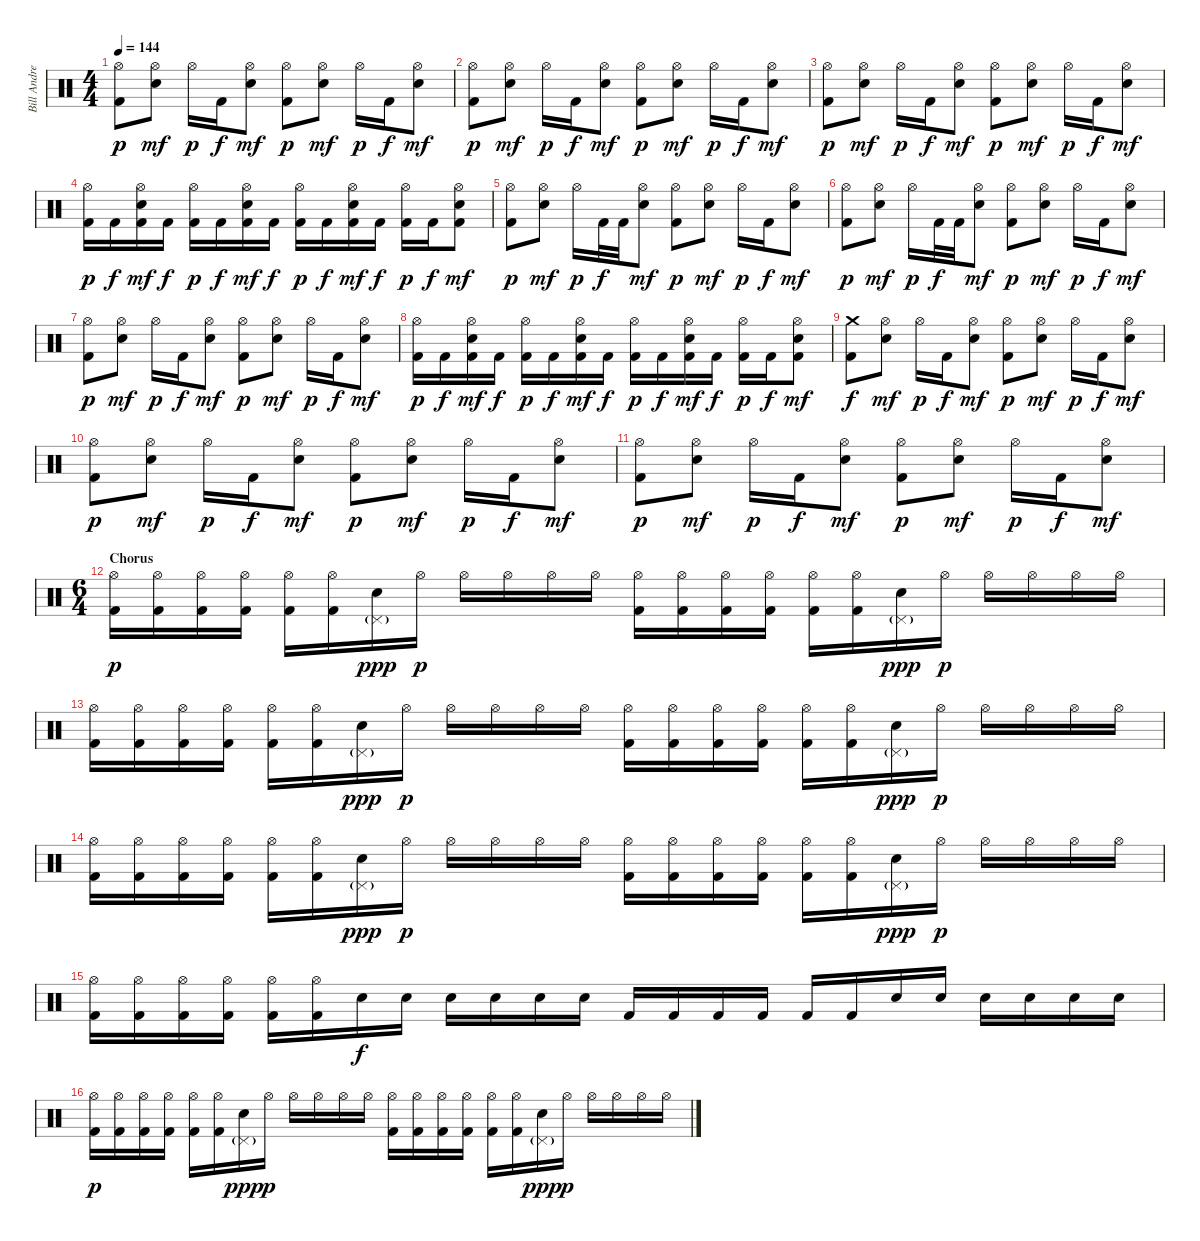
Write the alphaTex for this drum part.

\track ("Bill Andrews" "Bill Andre") {instrument percussion}
\staff {score}
\articulation defaults
\ts (4 4)
\tempo 144
\clef neutral
\ks c
("Kick (hit) 2" "Hi-Hat (open)").8{dy p} ("Hi-Hat (open)" "Snare (hit) 2").8{dy mf} "Hi-Hat (open)".16{dy p} "Kick (hit) 2".16{dy f} ("Hi-Hat (open)" "Snare (hit) 2").8{dy mf} ("Kick (hit) 2" "Hi-Hat (open)").8{dy p} ("Hi-Hat (open)" "Snare (hit) 2").8{dy mf} "Hi-Hat (open)".16{dy p} "Kick (hit) 2".16{dy f} ("Hi-Hat (open)" "Snare (hit) 2").8{dy mf} |
("Kick (hit) 2" "Hi-Hat (open)").8{dy p} ("Hi-Hat (open)" "Snare (hit) 2").8{dy mf} "Hi-Hat (open)".16{dy p} "Kick (hit) 2".16{dy f} ("Hi-Hat (open)" "Snare (hit) 2").8{dy mf} ("Kick (hit) 2" "Hi-Hat (open)").8{dy p} ("Hi-Hat (open)" "Snare (hit) 2").8{dy mf} "Hi-Hat (open)".16{dy p} "Kick (hit) 2".16{dy f} ("Hi-Hat (open)" "Snare (hit) 2").8{dy mf} |
("Kick (hit) 2" "Hi-Hat (open)").8{dy p} ("Hi-Hat (open)" "Snare (hit) 2").8{dy mf} "Hi-Hat (open)".16{dy p} "Kick (hit) 2".16{dy f} ("Hi-Hat (open)" "Snare (hit) 2").8{dy mf} ("Kick (hit) 2" "Hi-Hat (open)").8{dy p} ("Hi-Hat (open)" "Snare (hit) 2").8{dy mf} "Hi-Hat (open)".16{dy p} "Kick (hit) 2".16{dy f} ("Hi-Hat (open)" "Snare (hit) 2").8{dy mf} |
("Kick (hit) 2" "Hi-Hat (open)").16{dy p} "Kick (hit) 2".16{dy f} ("Kick (hit) 2" "Hi-Hat (open)" "Snare (hit) 2").16{dy mf} "Kick (hit) 2".16{dy f} ("Kick (hit) 2" "Hi-Hat (open)").16{dy p} "Kick (hit) 2".16{dy f} ("Kick (hit) 2" "Hi-Hat (open)" "Snare (hit) 2").16{dy mf} "Kick (hit) 2".16{dy f} ("Kick (hit) 2" "Hi-Hat (open)").16{dy p} "Kick (hit) 2".16{dy f} ("Kick (hit) 2" "Hi-Hat (open)" "Snare (hit) 2").16{dy mf} "Kick (hit) 2".16{dy f} ("Kick (hit) 2" "Hi-Hat (open)").16{dy p} "Kick (hit) 2".16{dy f} ("Kick (hit) 2" "Hi-Hat (open)" "Snare (hit) 2").8{dy mf} |
("Kick (hit) 2" "Hi-Hat (open)").8{dy p} ("Hi-Hat (open)" "Snare (hit) 2").8{dy mf} "Hi-Hat (open)".16{dy p} "Kick (hit) 2".32{dy f} "Kick (hit) 2".32 ("Hi-Hat (open)" "Snare (hit) 2").8{dy mf} ("Kick (hit) 2" "Hi-Hat (open)").8{dy p} ("Hi-Hat (open)" "Snare (hit) 2").8{dy mf} "Hi-Hat (open)".16{dy p} "Kick (hit) 2".16{dy f} ("Hi-Hat (open)" "Snare (hit) 2").8{dy mf} |
("Kick (hit) 2" "Hi-Hat (open)").8{dy p} ("Hi-Hat (open)" "Snare (hit) 2").8{dy mf} "Hi-Hat (open)".16{dy p} "Kick (hit) 2".32{dy f} "Kick (hit) 2".32 ("Hi-Hat (open)" "Snare (hit) 2").8{dy mf} ("Kick (hit) 2" "Hi-Hat (open)").8{dy p} ("Hi-Hat (open)" "Snare (hit) 2").8{dy mf} "Hi-Hat (open)".16{dy p} "Kick (hit) 2".16{dy f} ("Hi-Hat (open)" "Snare (hit) 2").8{dy mf} |
("Kick (hit) 2" "Hi-Hat (open)").8{dy p} ("Hi-Hat (open)" "Snare (hit) 2").8{dy mf} "Hi-Hat (open)".16{dy p} "Kick (hit) 2".16{dy f} ("Hi-Hat (open)" "Snare (hit) 2").8{dy mf} ("Kick (hit) 2" "Hi-Hat (open)").8{dy p} ("Hi-Hat (open)" "Snare (hit) 2").8{dy mf} "Hi-Hat (open)".16{dy p} "Kick (hit) 2".16{dy f} ("Hi-Hat (open)" "Snare (hit) 2").8{dy mf} |
("Kick (hit) 2" "Hi-Hat (open)").16{dy p} "Kick (hit) 2".16{dy f} ("Kick (hit) 2" "Hi-Hat (open)" "Snare (hit) 2").16{dy mf} "Kick (hit) 2".16{dy f} ("Kick (hit) 2" "Hi-Hat (open)").16{dy p} "Kick (hit) 2".16{dy f} ("Kick (hit) 2" "Hi-Hat (open)" "Snare (hit) 2").16{dy mf} "Kick (hit) 2".16{dy f} ("Kick (hit) 2" "Hi-Hat (open)").16{dy p} "Kick (hit) 2".16{dy f} ("Kick (hit) 2" "Hi-Hat (open)" "Snare (hit) 2").16{dy mf} "Kick (hit) 2".16{dy f} ("Kick (hit) 2" "Hi-Hat (open)").16{dy p} "Kick (hit) 2".16{dy f} ("Kick (hit) 2" "Hi-Hat (open)" "Snare (hit) 2").8{dy mf} |
("Kick (hit) 2" "Crash medium (hit)").8{dy f} ("Hi-Hat (open)" "Snare (hit) 2").8{dy mf} "Hi-Hat (open)".16{dy p} "Kick (hit) 2".16{dy f} ("Hi-Hat (open)" "Snare (hit) 2").8{dy mf} ("Kick (hit) 2" "Hi-Hat (open)").8{dy p} ("Hi-Hat (open)" "Snare (hit) 2").8{dy mf} "Hi-Hat (open)".16{dy p} "Kick (hit) 2".16{dy f} ("Hi-Hat (open)" "Snare (hit) 2").8{dy mf} |
("Kick (hit) 2" "Hi-Hat (open)").8{dy p} ("Hi-Hat (open)" "Snare (hit) 2").8{dy mf} "Hi-Hat (open)".16{dy p} "Kick (hit) 2".16{dy f} ("Hi-Hat (open)" "Snare (hit) 2").8{dy mf} ("Kick (hit) 2" "Hi-Hat (open)").8{dy p} ("Hi-Hat (open)" "Snare (hit) 2").8{dy mf} "Hi-Hat (open)".16{dy p} "Kick (hit) 2".16{dy f} ("Hi-Hat (open)" "Snare (hit) 2").8{dy mf} |
("Kick (hit) 2" "Hi-Hat (open)").8{dy p} ("Hi-Hat (open)" "Snare (hit) 2").8{dy mf} "Hi-Hat (open)".16{dy p} "Kick (hit) 2".16{dy f} ("Hi-Hat (open)" "Snare (hit) 2").8{dy mf} ("Kick (hit) 2" "Hi-Hat (open)").8{dy p} ("Hi-Hat (open)" "Snare (hit) 2").8{dy mf} "Hi-Hat (open)".16{dy p} "Kick (hit) 2".16{dy f} ("Hi-Hat (open)" "Snare (hit) 2").8{dy mf} |
\ts (6 4)
\section ("" "Chorus")
("Kick (hit) 2" "Hi-Hat (open)").16{dy p} ("Kick (hit) 2" "Hi-Hat (open)").16 ("Kick (hit) 2" "Hi-Hat (open)").16 ("Kick (hit) 2" "Hi-Hat (open)").16 ("Kick (hit) 2" "Hi-Hat (open)").16 ("Kick (hit) 2" "Hi-Hat (open)").16 ("Pedal Hi-Hat (hit)"{g} "Snare (hit) 2").16{dy ppp} "Hi-Hat (open)".16{dy p} "Hi-Hat (open)".16 "Hi-Hat (open)".16 "Hi-Hat (open)".16 "Hi-Hat (open)".16 ("Kick (hit) 2" "Hi-Hat (open)").16 ("Kick (hit) 2" "Hi-Hat (open)").16 ("Kick (hit) 2" "Hi-Hat (open)").16 ("Kick (hit) 2" "Hi-Hat (open)").16 ("Kick (hit) 2" "Hi-Hat (open)").16 ("Kick (hit) 2" "Hi-Hat (open)").16 ("Pedal Hi-Hat (hit)"{g} "Snare (hit) 2").16{dy ppp} "Hi-Hat (open)".16{dy p} "Hi-Hat (open)".16 "Hi-Hat (open)".16 "Hi-Hat (open)".16 "Hi-Hat (open)".16 |
("Kick (hit) 2" "Hi-Hat (open)").16 ("Kick (hit) 2" "Hi-Hat (open)").16 ("Kick (hit) 2" "Hi-Hat (open)").16 ("Kick (hit) 2" "Hi-Hat (open)").16 ("Kick (hit) 2" "Hi-Hat (open)").16 ("Kick (hit) 2" "Hi-Hat (open)").16 ("Pedal Hi-Hat (hit)"{g} "Snare (hit) 2").16{dy ppp} "Hi-Hat (open)".16{dy p} "Hi-Hat (open)".16 "Hi-Hat (open)".16 "Hi-Hat (open)".16 "Hi-Hat (open)".16 ("Kick (hit) 2" "Hi-Hat (open)").16 ("Kick (hit) 2" "Hi-Hat (open)").16 ("Kick (hit) 2" "Hi-Hat (open)").16 ("Kick (hit) 2" "Hi-Hat (open)").16 ("Kick (hit) 2" "Hi-Hat (open)").16 ("Kick (hit) 2" "Hi-Hat (open)").16 ("Pedal Hi-Hat (hit)"{g} "Snare (hit) 2").16{dy ppp} "Hi-Hat (open)".16{dy p} "Hi-Hat (open)".16 "Hi-Hat (open)".16 "Hi-Hat (open)".16 "Hi-Hat (open)".16 |
("Kick (hit) 2" "Hi-Hat (open)").16 ("Kick (hit) 2" "Hi-Hat (open)").16 ("Kick (hit) 2" "Hi-Hat (open)").16 ("Kick (hit) 2" "Hi-Hat (open)").16 ("Kick (hit) 2" "Hi-Hat (open)").16 ("Kick (hit) 2" "Hi-Hat (open)").16 ("Pedal Hi-Hat (hit)"{g} "Snare (hit) 2").16{dy ppp} "Hi-Hat (open)".16{dy p} "Hi-Hat (open)".16 "Hi-Hat (open)".16 "Hi-Hat (open)".16 "Hi-Hat (open)".16 ("Kick (hit) 2" "Hi-Hat (open)").16 ("Kick (hit) 2" "Hi-Hat (open)").16 ("Kick (hit) 2" "Hi-Hat (open)").16 ("Kick (hit) 2" "Hi-Hat (open)").16 ("Kick (hit) 2" "Hi-Hat (open)").16 ("Kick (hit) 2" "Hi-Hat (open)").16 ("Pedal Hi-Hat (hit)"{g} "Snare (hit) 2").16{dy ppp} "Hi-Hat (open)".16{dy p} "Hi-Hat (open)".16 "Hi-Hat (open)".16 "Hi-Hat (open)".16 "Hi-Hat (open)".16 |
("Kick (hit) 2" "Hi-Hat (open)").16 ("Kick (hit) 2" "Hi-Hat (open)").16 ("Kick (hit) 2" "Hi-Hat (open)").16 ("Kick (hit) 2" "Hi-Hat (open)").16 ("Kick (hit) 2" "Hi-Hat (open)").16 ("Kick (hit) 2" "Hi-Hat (open)").16 "Snare (hit) 2".16{dy f} "Snare (hit) 2".16 "Snare (hit) 2".16 "Snare (hit) 2".16 "Snare (hit) 2".16 "Snare (hit) 2".16 "Kick (hit) 2".16 "Kick (hit) 2".16 "Kick (hit) 2".16 "Kick (hit) 2".16 "Kick (hit) 2".16 "Kick (hit) 2".16 "Snare (hit) 2".16 "Snare (hit) 2".16 "Snare (hit) 2".16 "Snare (hit) 2".16 "Snare (hit) 2".16 "Snare (hit) 2".16 |
("Kick (hit) 2" "Hi-Hat (open)").16{dy p} ("Kick (hit) 2" "Hi-Hat (open)").16 ("Kick (hit) 2" "Hi-Hat (open)").16 ("Kick (hit) 2" "Hi-Hat (open)").16 ("Kick (hit) 2" "Hi-Hat (open)").16 ("Kick (hit) 2" "Hi-Hat (open)").16 ("Pedal Hi-Hat (hit)"{g} "Snare (hit) 2").16{dy ppp} "Hi-Hat (open)".16{dy p} "Hi-Hat (open)".16 "Hi-Hat (open)".16 "Hi-Hat (open)".16 "Hi-Hat (open)".16 ("Kick (hit) 2" "Hi-Hat (open)").16 ("Kick (hit) 2" "Hi-Hat (open)").16 ("Kick (hit) 2" "Hi-Hat (open)").16 ("Kick (hit) 2" "Hi-Hat (open)").16 ("Kick (hit) 2" "Hi-Hat (open)").16 ("Kick (hit) 2" "Hi-Hat (open)").16 ("Pedal Hi-Hat (hit)"{g} "Snare (hit) 2").16{dy ppp} "Hi-Hat (open)".16{dy p} "Hi-Hat (open)".16 "Hi-Hat (open)".16 "Hi-Hat (open)".16 "Hi-Hat (open)".16
